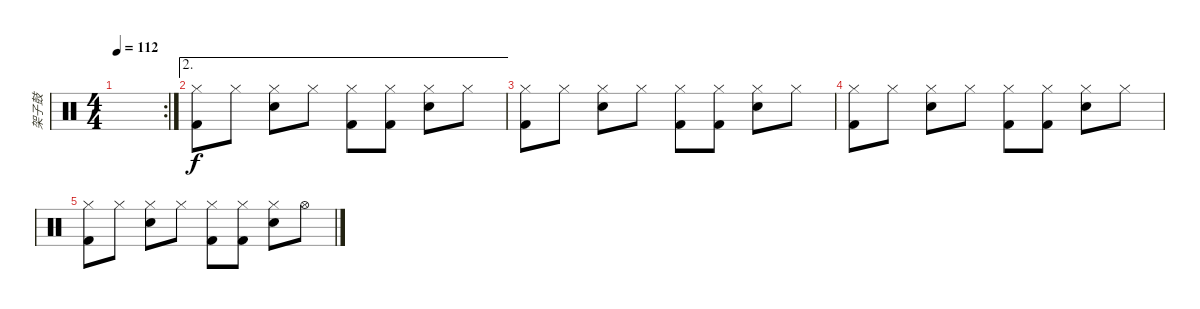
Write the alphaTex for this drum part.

\track ("架子鼓" "架子鼓") {instrument percussion}
\staff {score}
\articulation defaults
\rc 2
\ts (4 4)
\tempo 112
\clef neutral
\ks c
|
\ae 2
("Hi-Hat (closed)" "Kick (hit) 2").8 "Hi-Hat (closed)".8 ("Hi-Hat (closed)" "Snare (hit) 2").8 "Hi-Hat (closed)".8 ("Hi-Hat (closed)" "Kick (hit) 2").8 ("Hi-Hat (closed)" "Kick (hit) 2").8 ("Hi-Hat (closed)" "Snare (hit) 2").8 "Hi-Hat (closed)".8 |
("Hi-Hat (closed)" "Kick (hit) 2").8 "Hi-Hat (closed)".8 ("Hi-Hat (closed)" "Snare (hit) 2").8 "Hi-Hat (closed)".8 ("Hi-Hat (closed)" "Kick (hit) 2").8 ("Hi-Hat (closed)" "Kick (hit) 2").8 ("Hi-Hat (closed)" "Snare (hit) 2").8 "Hi-Hat (closed)".8 |
("Hi-Hat (closed)" "Kick (hit) 2").8 "Hi-Hat (closed)".8 ("Hi-Hat (closed)" "Snare (hit) 2").8 "Hi-Hat (closed)".8 ("Hi-Hat (closed)" "Kick (hit) 2").8 ("Hi-Hat (closed)" "Kick (hit) 2").8 ("Hi-Hat (closed)" "Snare (hit) 2").8 "Hi-Hat (closed)".8 |
("Hi-Hat (closed)" "Kick (hit) 2").8 "Hi-Hat (closed)".8 ("Hi-Hat (closed)" "Snare (hit) 2").8 "Hi-Hat (closed)".8 ("Hi-Hat (closed)" "Kick (hit) 2").8 ("Hi-Hat (closed)" "Kick (hit) 2").8 ("Hi-Hat (closed)" "Snare (hit) 2").8 "Hi-Hat (open)".8
